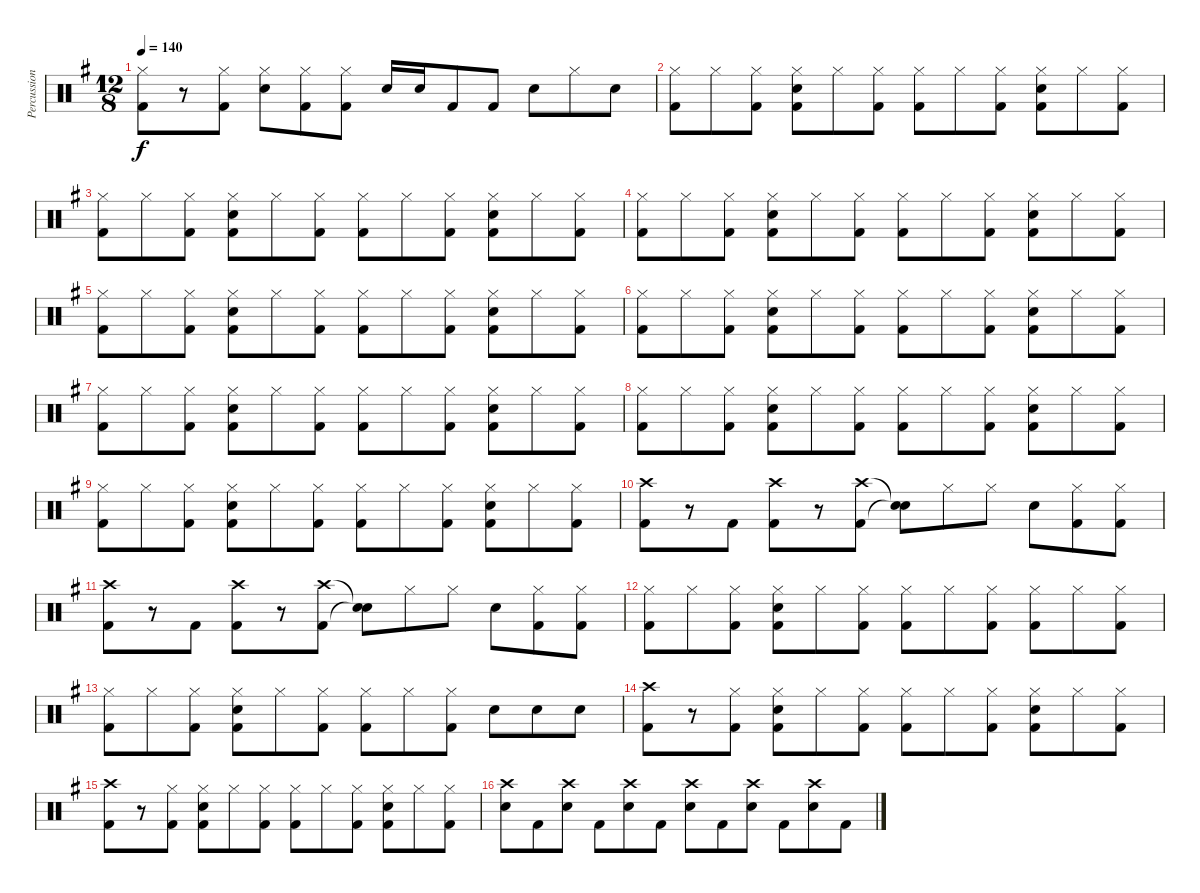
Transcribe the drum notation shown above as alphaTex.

\track ("Percussion" "Percussion") {instrument percussion}
\staff {score}
\articulation defaults
\ts (12 8)
\tempo 140
\clef neutral
\ks g
("Hi-Hat (closed)" "Kick (hit) 2").8{dy f} r.8 ("Hi-Hat (closed)" "Kick (hit) 2").8 ("Hi-Hat (closed)" "Snare (hit) 2").8 ("Hi-Hat (closed)" "Kick (hit) 2").8 ("Hi-Hat (closed)" "Kick (hit) 2").8 "Snare (hit) 2".16 "Snare (hit) 2".16 "Kick (hit) 2".8 "Kick (hit) 2".8 "Snare (hit) 2".8 "Hi-Hat (closed)".8 "Snare (hit) 2".8 |
("Hi-Hat (closed)" "Kick (hit) 2").8 "Hi-Hat (closed)".8 ("Hi-Hat (closed)" "Kick (hit) 2").8 ("Hi-Hat (closed)" "Snare (hit) 2" "Kick (hit) 2").8 "Hi-Hat (closed)".8 ("Hi-Hat (closed)" "Kick (hit) 2").8 ("Hi-Hat (closed)" "Kick (hit) 2").8 "Hi-Hat (closed)".8 ("Hi-Hat (closed)" "Kick (hit) 2").8 ("Hi-Hat (closed)" "Snare (hit) 2" "Kick (hit) 2").8 "Hi-Hat (closed)".8 ("Hi-Hat (closed)" "Kick (hit) 2").8 |
("Hi-Hat (closed)" "Kick (hit) 2").8 "Hi-Hat (closed)".8 ("Hi-Hat (closed)" "Kick (hit) 2").8 ("Hi-Hat (closed)" "Snare (hit) 2" "Kick (hit) 2").8 "Hi-Hat (closed)".8 ("Hi-Hat (closed)" "Kick (hit) 2").8 ("Hi-Hat (closed)" "Kick (hit) 2").8 "Hi-Hat (closed)".8 ("Hi-Hat (closed)" "Kick (hit) 2").8 ("Hi-Hat (closed)" "Snare (hit) 2" "Kick (hit) 2").8 "Hi-Hat (closed)".8 ("Hi-Hat (closed)" "Kick (hit) 2").8 |
("Hi-Hat (closed)" "Kick (hit) 2").8 "Hi-Hat (closed)".8 ("Hi-Hat (closed)" "Kick (hit) 2").8 ("Hi-Hat (closed)" "Snare (hit) 2" "Kick (hit) 2").8 "Hi-Hat (closed)".8 ("Hi-Hat (closed)" "Kick (hit) 2").8 ("Hi-Hat (closed)" "Kick (hit) 2").8 "Hi-Hat (closed)".8 ("Hi-Hat (closed)" "Kick (hit) 2").8 ("Hi-Hat (closed)" "Snare (hit) 2" "Kick (hit) 2").8 "Hi-Hat (closed)".8 ("Hi-Hat (closed)" "Kick (hit) 2").8 |
("Hi-Hat (closed)" "Kick (hit) 2").8 "Hi-Hat (closed)".8 ("Hi-Hat (closed)" "Kick (hit) 2").8 ("Hi-Hat (closed)" "Snare (hit) 2" "Kick (hit) 2").8 "Hi-Hat (closed)".8 ("Hi-Hat (closed)" "Kick (hit) 2").8 ("Hi-Hat (closed)" "Kick (hit) 2").8 "Hi-Hat (closed)".8 ("Hi-Hat (closed)" "Kick (hit) 2").8 ("Hi-Hat (closed)" "Snare (hit) 2" "Kick (hit) 2").8 "Hi-Hat (closed)".8 ("Hi-Hat (closed)" "Kick (hit) 2").8 |
("Hi-Hat (closed)" "Kick (hit) 2").8 "Hi-Hat (closed)".8 ("Hi-Hat (closed)" "Kick (hit) 2").8 ("Hi-Hat (closed)" "Snare (hit) 2" "Kick (hit) 2").8 "Hi-Hat (closed)".8 ("Hi-Hat (closed)" "Kick (hit) 2").8 ("Hi-Hat (closed)" "Kick (hit) 2").8 "Hi-Hat (closed)".8 ("Hi-Hat (closed)" "Kick (hit) 2").8 ("Hi-Hat (closed)" "Snare (hit) 2" "Kick (hit) 2").8 "Hi-Hat (closed)".8 ("Hi-Hat (closed)" "Kick (hit) 2").8 |
("Hi-Hat (closed)" "Kick (hit) 2").8 "Hi-Hat (closed)".8 ("Hi-Hat (closed)" "Kick (hit) 2").8 ("Hi-Hat (closed)" "Snare (hit) 2" "Kick (hit) 2").8 "Hi-Hat (closed)".8 ("Hi-Hat (closed)" "Kick (hit) 2").8 ("Hi-Hat (closed)" "Kick (hit) 2").8 "Hi-Hat (closed)".8 ("Hi-Hat (closed)" "Kick (hit) 2").8 ("Hi-Hat (closed)" "Snare (hit) 2" "Kick (hit) 2").8 "Hi-Hat (closed)".8 ("Hi-Hat (closed)" "Kick (hit) 2").8 |
("Hi-Hat (closed)" "Kick (hit) 2").8 "Hi-Hat (closed)".8 ("Hi-Hat (closed)" "Kick (hit) 2").8 ("Hi-Hat (closed)" "Snare (hit) 2" "Kick (hit) 2").8 "Hi-Hat (closed)".8 ("Hi-Hat (closed)" "Kick (hit) 2").8 ("Hi-Hat (closed)" "Kick (hit) 2").8 "Hi-Hat (closed)".8 ("Hi-Hat (closed)" "Kick (hit) 2").8 ("Hi-Hat (closed)" "Snare (hit) 2" "Kick (hit) 2").8 "Hi-Hat (closed)".8 ("Hi-Hat (closed)" "Kick (hit) 2").8 |
("Hi-Hat (closed)" "Kick (hit) 2").8 "Hi-Hat (closed)".8 ("Hi-Hat (closed)" "Kick (hit) 2").8 ("Hi-Hat (closed)" "Snare (hit) 2" "Kick (hit) 2").8 "Hi-Hat (closed)".8 ("Hi-Hat (closed)" "Kick (hit) 2").8 ("Hi-Hat (closed)" "Kick (hit) 2").8 "Hi-Hat (closed)".8 ("Hi-Hat (closed)" "Kick (hit) 2").8 ("Hi-Hat (closed)" "Snare (hit) 2" "Kick (hit) 2").8 "Hi-Hat (closed)".8 ("Hi-Hat (closed)" "Kick (hit) 2").8 |
("Crash high (hit)" "Kick (hit) 2").8 r.8 "Kick (hit) 2".8 ("Crash high (hit)" "Kick (hit) 2").8 r.8 ("Crash high (hit)" "Kick (hit) 2").8 ("Snare (hit)"{t} "Snare (hit)"{t}).8 "Hi-Hat (closed)".8 "Hi-Hat (closed)".8 "Snare (hit) 2".8 ("Hi-Hat (closed)" "Kick (hit) 2").8 ("Hi-Hat (closed)" "Kick (hit) 2").8 |
("Crash high (hit)" "Kick (hit) 2").8 r.8 "Kick (hit) 2".8 ("Crash high (hit)" "Kick (hit) 2").8 r.8 ("Crash high (hit)" "Kick (hit) 2").8 ("Snare (hit)"{t} "Snare (hit)"{t}).8 "Hi-Hat (closed)".8 "Hi-Hat (closed)".8 "Snare (hit) 2".8 ("Hi-Hat (closed)" "Kick (hit) 2").8 ("Hi-Hat (closed)" "Kick (hit) 2").8 |
("Hi-Hat (closed)" "Kick (hit) 2").8 "Hi-Hat (closed)".8 ("Hi-Hat (closed)" "Kick (hit) 2").8 ("Hi-Hat (closed)" "Snare (hit) 2" "Kick (hit) 2").8 "Hi-Hat (closed)".8 ("Hi-Hat (closed)" "Kick (hit) 2").8 ("Hi-Hat (closed)" "Kick (hit) 2").8 "Hi-Hat (closed)".8 ("Hi-Hat (closed)" "Kick (hit) 2").8 ("Hi-Hat (closed)" "Kick (hit) 2").8 "Hi-Hat (closed)".8 ("Hi-Hat (closed)" "Kick (hit) 2").8 |
("Hi-Hat (closed)" "Kick (hit) 2").8 "Hi-Hat (closed)".8 ("Hi-Hat (closed)" "Kick (hit) 2").8 ("Hi-Hat (closed)" "Snare (hit) 2" "Kick (hit) 2").8 "Hi-Hat (closed)".8 ("Hi-Hat (closed)" "Kick (hit) 2").8 ("Hi-Hat (closed)" "Kick (hit) 2").8 "Hi-Hat (closed)".8 ("Hi-Hat (closed)" "Kick (hit) 2").8 "Snare (hit) 2".8 "Snare (hit) 2".8 "Snare (hit) 2".8 |
("Crash high (hit)" "Kick (hit) 2").8 r.8 ("Hi-Hat (closed)" "Kick (hit) 2").8 ("Hi-Hat (closed)" "Snare (hit) 2" "Kick (hit) 2").8 "Hi-Hat (closed)".8 ("Hi-Hat (closed)" "Kick (hit) 2").8 ("Hi-Hat (closed)" "Kick (hit) 2").8 "Hi-Hat (closed)".8 ("Hi-Hat (closed)" "Kick (hit) 2").8 ("Hi-Hat (closed)" "Snare (hit) 2" "Kick (hit) 2").8 "Hi-Hat (closed)".8 ("Hi-Hat (closed)" "Kick (hit) 2").8 |
("Crash high (hit)" "Kick (hit) 2").8 r.8 ("Hi-Hat (closed)" "Kick (hit) 2").8 ("Hi-Hat (closed)" "Snare (hit) 2" "Kick (hit) 2").8 "Hi-Hat (closed)".8 ("Hi-Hat (closed)" "Kick (hit) 2").8 ("Hi-Hat (closed)" "Kick (hit) 2").8 "Hi-Hat (closed)".8 ("Hi-Hat (closed)" "Kick (hit) 2").8 ("Hi-Hat (closed)" "Snare (hit) 2" "Kick (hit) 2").8 "Hi-Hat (closed)".8 ("Hi-Hat (closed)" "Kick (hit) 2").8 |
("Crash high (hit)" "Snare (hit) 2").8 "Kick (hit) 2".8 ("Crash high (hit)" "Snare (hit) 2").8 "Kick (hit) 2".8 ("Crash high (hit)" "Snare (hit) 2").8 "Kick (hit) 2".8 ("Crash high (hit)" "Snare (hit) 2").8 "Kick (hit) 2".8 ("Crash high (hit)" "Snare (hit) 2").8 "Kick (hit) 2".8 ("Crash high (hit)" "Snare (hit) 2").8 "Kick (hit) 2".8
